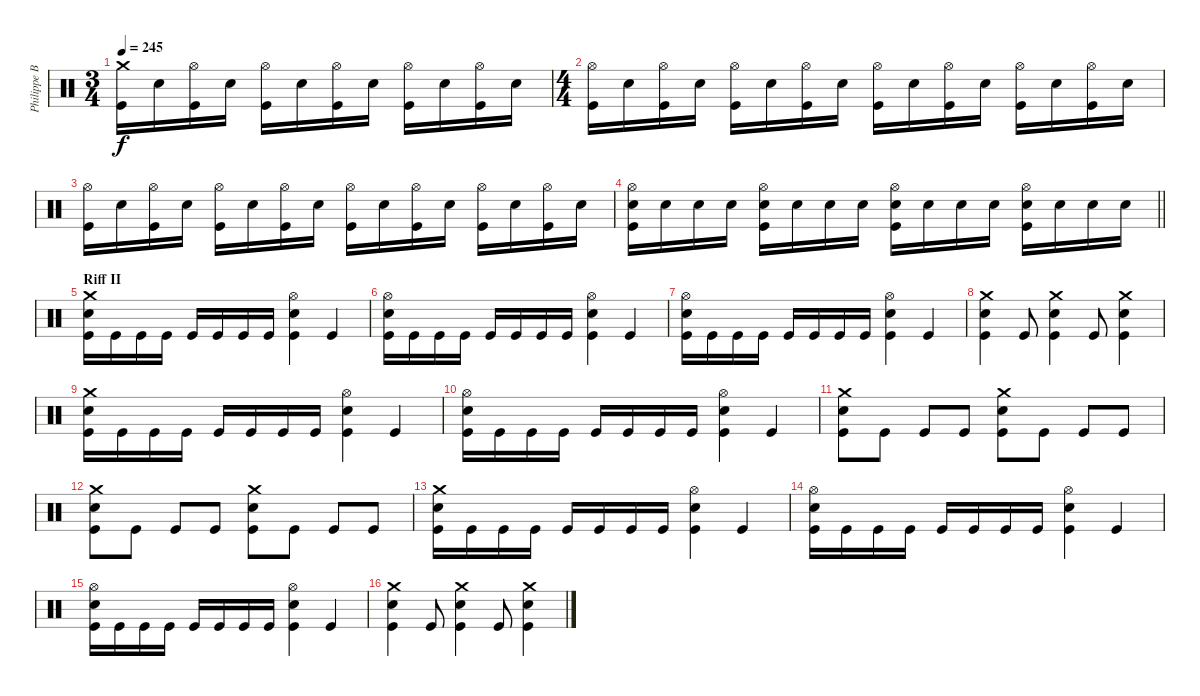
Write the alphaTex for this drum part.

\track ("Philippe Boucher" "Philippe B") {instrument percussion}
\staff {score}
\articulation defaults
\ts (3 4)
\tempo 245
\clef neutral
\ks c
("Crash medium (hit)" "Kick (hit)").16{dy f} "Electric Snare (hit)".16 ("Hi-Hat (open)" "Kick (hit)").16 "Electric Snare (hit)".16 ("Hi-Hat (open)" "Kick (hit)").16 "Electric Snare (hit)".16 ("Hi-Hat (open)" "Kick (hit)").16 "Electric Snare (hit)".16 ("Hi-Hat (open)" "Kick (hit)").16 "Electric Snare (hit)".16 ("Hi-Hat (open)" "Kick (hit)").16 "Electric Snare (hit)".16 |
\ts (4 4)
("Hi-Hat (open)" "Kick (hit)").16 "Electric Snare (hit)".16 ("Hi-Hat (open)" "Kick (hit)").16 "Electric Snare (hit)".16 ("Hi-Hat (open)" "Kick (hit)").16 "Electric Snare (hit)".16 ("Hi-Hat (open)" "Kick (hit)").16 "Electric Snare (hit)".16 ("Hi-Hat (open)" "Kick (hit)").16 "Electric Snare (hit)".16 ("Hi-Hat (open)" "Kick (hit)").16 "Electric Snare (hit)".16 ("Hi-Hat (open)" "Kick (hit)").16 "Electric Snare (hit)".16 ("Hi-Hat (open)" "Kick (hit)").16 "Electric Snare (hit)".16 |
("Hi-Hat (open)" "Kick (hit)").16 "Electric Snare (hit)".16 ("Hi-Hat (open)" "Kick (hit)").16 "Electric Snare (hit)".16 ("Hi-Hat (open)" "Kick (hit)").16 "Electric Snare (hit)".16 ("Hi-Hat (open)" "Kick (hit)").16 "Electric Snare (hit)".16 ("Hi-Hat (open)" "Kick (hit)").16 "Electric Snare (hit)".16 ("Hi-Hat (open)" "Kick (hit)").16 "Electric Snare (hit)".16 ("Hi-Hat (open)" "Kick (hit)").16 "Electric Snare (hit)".16 ("Hi-Hat (open)" "Kick (hit)").16 "Electric Snare (hit)".16 |
\barLineRight lightlight
("Hi-Hat (open)" "Electric Snare (hit)" "Kick (hit)").16 "Electric Snare (hit)".16 "Electric Snare (hit)".16 "Electric Snare (hit)".16 ("Hi-Hat (open)" "Electric Snare (hit)" "Kick (hit)").16 "Electric Snare (hit)".16 "Electric Snare (hit)".16 "Electric Snare (hit)".16 ("Hi-Hat (open)" "Electric Snare (hit)" "Kick (hit)").16 "Electric Snare (hit)".16 "Electric Snare (hit)".16 "Electric Snare (hit)".16 ("Hi-Hat (open)" "Electric Snare (hit)" "Kick (hit)").16 "Electric Snare (hit)".16 "Electric Snare (hit)".16 "Electric Snare (hit)".16 |
\section ("" "Riff II")
("Crash medium (hit)" "Electric Snare (hit)" "Kick (hit)").16 "Kick (hit)".16 "Kick (hit)".16 "Kick (hit)".16 "Kick (hit)".16 "Kick (hit)".16 "Kick (hit)".16 "Kick (hit)".16 ("Hi-Hat (open)" "Electric Snare (hit)" "Kick (hit)").4 "Kick (hit)".4 |
("Hi-Hat (open)" "Electric Snare (hit)" "Kick (hit)").16 "Kick (hit)".16 "Kick (hit)".16 "Kick (hit)".16 "Kick (hit)".16 "Kick (hit)".16 "Kick (hit)".16 "Kick (hit)".16 ("Hi-Hat (open)" "Electric Snare (hit)" "Kick (hit)").4 "Kick (hit)".4 |
("Hi-Hat (open)" "Electric Snare (hit)" "Kick (hit)").16 "Kick (hit)".16 "Kick (hit)".16 "Kick (hit)".16 "Kick (hit)".16 "Kick (hit)".16 "Kick (hit)".16 "Kick (hit)".16 ("Hi-Hat (open)" "Electric Snare (hit)" "Kick (hit)").4 "Kick (hit)".4 |
("Crash medium (hit)" "Electric Snare (hit)" "Kick (hit)").4 "Kick (hit)".8 ("Crash medium (hit)" "Electric Snare (hit)" "Kick (hit)").4 "Kick (hit)".8 ("Crash medium (hit)" "Electric Snare (hit)" "Kick (hit)").4 |
("Crash medium (hit)" "Electric Snare (hit)" "Kick (hit)").16 "Kick (hit)".16 "Kick (hit)".16 "Kick (hit)".16 "Kick (hit)".16 "Kick (hit)".16 "Kick (hit)".16 "Kick (hit)".16 ("Hi-Hat (open)" "Electric Snare (hit)" "Kick (hit)").4 "Kick (hit)".4 |
("Hi-Hat (open)" "Electric Snare (hit)" "Kick (hit)").16 "Kick (hit)".16 "Kick (hit)".16 "Kick (hit)".16 "Kick (hit)".16 "Kick (hit)".16 "Kick (hit)".16 "Kick (hit)".16 ("Hi-Hat (open)" "Electric Snare (hit)" "Kick (hit)").4 "Kick (hit)".4 |
("Crash medium (hit)" "Electric Snare (hit)" "Kick (hit)").8 "Kick (hit)".8 "Kick (hit)".8 "Kick (hit)".8 ("Crash medium (hit)" "Electric Snare (hit)" "Kick (hit)").8 "Kick (hit)".8 "Kick (hit)".8 "Kick (hit)".8 |
("Crash medium (hit)" "Electric Snare (hit)" "Kick (hit)").8 "Kick (hit)".8 "Kick (hit)".8 "Kick (hit)".8 ("Crash medium (hit)" "Electric Snare (hit)" "Kick (hit)").8 "Kick (hit)".8 "Kick (hit)".8 "Kick (hit)".8 |
("Crash medium (hit)" "Electric Snare (hit)" "Kick (hit)").16 "Kick (hit)".16 "Kick (hit)".16 "Kick (hit)".16 "Kick (hit)".16 "Kick (hit)".16 "Kick (hit)".16 "Kick (hit)".16 ("Hi-Hat (open)" "Electric Snare (hit)" "Kick (hit)").4 "Kick (hit)".4 |
("Hi-Hat (open)" "Electric Snare (hit)" "Kick (hit)").16 "Kick (hit)".16 "Kick (hit)".16 "Kick (hit)".16 "Kick (hit)".16 "Kick (hit)".16 "Kick (hit)".16 "Kick (hit)".16 ("Hi-Hat (open)" "Electric Snare (hit)" "Kick (hit)").4 "Kick (hit)".4 |
("Hi-Hat (open)" "Electric Snare (hit)" "Kick (hit)").16 "Kick (hit)".16 "Kick (hit)".16 "Kick (hit)".16 "Kick (hit)".16 "Kick (hit)".16 "Kick (hit)".16 "Kick (hit)".16 ("Hi-Hat (open)" "Electric Snare (hit)" "Kick (hit)").4 "Kick (hit)".4 |
("Crash medium (hit)" "Electric Snare (hit)" "Kick (hit)").4 "Kick (hit)".8 ("Crash medium (hit)" "Electric Snare (hit)" "Kick (hit)").4 "Kick (hit)".8 ("Crash medium (hit)" "Electric Snare (hit)" "Kick (hit)").4
